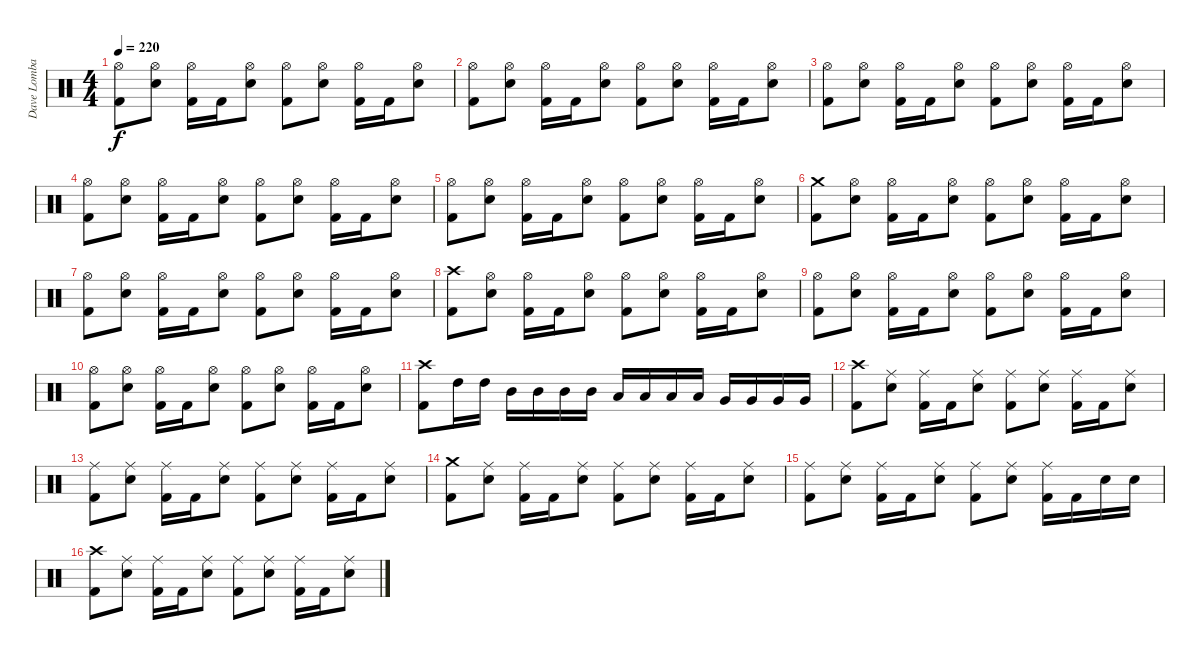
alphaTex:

\track ("Dave Lombardo" "Dave Lomba") {instrument percussion}
\staff {score}
\articulation defaults
\ts (4 4)
\tempo 220
\clef neutral
\ks c
("Hi-Hat (open)" "Kick (hit) 2").8{dy f} ("Hi-Hat (open)" "Electric Snare (hit)").8 ("Hi-Hat (open)" "Kick (hit) 2").16 "Kick (hit) 2".16 ("Hi-Hat (open)" "Electric Snare (hit)").8 ("Hi-Hat (open)" "Kick (hit) 2").8 ("Hi-Hat (open)" "Electric Snare (hit)").8 ("Hi-Hat (open)" "Kick (hit) 2").16 "Kick (hit) 2".16 ("Hi-Hat (open)" "Electric Snare (hit)").8 |
("Hi-Hat (open)" "Kick (hit) 2").8 ("Hi-Hat (open)" "Electric Snare (hit)").8 ("Hi-Hat (open)" "Kick (hit) 2").16 "Kick (hit) 2".16 ("Hi-Hat (open)" "Electric Snare (hit)").8 ("Hi-Hat (open)" "Kick (hit) 2").8 ("Hi-Hat (open)" "Electric Snare (hit)").8 ("Hi-Hat (open)" "Kick (hit) 2").16 "Kick (hit) 2".16 ("Hi-Hat (open)" "Electric Snare (hit)").8 |
("Hi-Hat (open)" "Kick (hit) 2").8 ("Hi-Hat (open)" "Electric Snare (hit)").8 ("Hi-Hat (open)" "Kick (hit) 2").16 "Kick (hit) 2".16 ("Hi-Hat (open)" "Electric Snare (hit)").8 ("Hi-Hat (open)" "Kick (hit) 2").8 ("Hi-Hat (open)" "Electric Snare (hit)").8 ("Hi-Hat (open)" "Kick (hit) 2").16 "Kick (hit) 2".16 ("Hi-Hat (open)" "Electric Snare (hit)").8 |
("Hi-Hat (open)" "Kick (hit) 2").8 ("Hi-Hat (open)" "Electric Snare (hit)").8 ("Hi-Hat (open)" "Kick (hit) 2").16 "Kick (hit) 2".16 ("Hi-Hat (open)" "Electric Snare (hit)").8 ("Hi-Hat (open)" "Kick (hit) 2").8 ("Hi-Hat (open)" "Electric Snare (hit)").8 ("Hi-Hat (open)" "Kick (hit) 2").16 "Kick (hit) 2".16 ("Hi-Hat (open)" "Electric Snare (hit)").8 |
("Hi-Hat (open)" "Kick (hit) 2").8 ("Hi-Hat (open)" "Electric Snare (hit)").8 ("Hi-Hat (open)" "Kick (hit) 2").16 "Kick (hit) 2".16 ("Hi-Hat (open)" "Electric Snare (hit)").8 ("Hi-Hat (open)" "Kick (hit) 2").8 ("Hi-Hat (open)" "Electric Snare (hit)").8 ("Hi-Hat (open)" "Kick (hit) 2").16 "Kick (hit) 2".16 ("Hi-Hat (open)" "Electric Snare (hit)").8 |
("Crash medium (hit)" "Kick (hit) 2").8 ("Hi-Hat (open)" "Electric Snare (hit)").8 ("Hi-Hat (open)" "Kick (hit) 2").16 "Kick (hit) 2".16 ("Hi-Hat (open)" "Electric Snare (hit)").8 ("Hi-Hat (open)" "Kick (hit) 2").8 ("Hi-Hat (open)" "Electric Snare (hit)").8 ("Hi-Hat (open)" "Kick (hit) 2").16 "Kick (hit) 2".16 ("Hi-Hat (open)" "Electric Snare (hit)").8 |
("Hi-Hat (open)" "Kick (hit) 2").8 ("Hi-Hat (open)" "Electric Snare (hit)").8 ("Hi-Hat (open)" "Kick (hit) 2").16 "Kick (hit) 2".16 ("Hi-Hat (open)" "Electric Snare (hit)").8 ("Hi-Hat (open)" "Kick (hit) 2").8 ("Hi-Hat (open)" "Electric Snare (hit)").8 ("Hi-Hat (open)" "Kick (hit) 2").16 "Kick (hit) 2".16 ("Hi-Hat (open)" "Electric Snare (hit)").8 |
("Crash high (hit)" "Kick (hit) 2").8 ("Hi-Hat (open)" "Electric Snare (hit)").8 ("Hi-Hat (open)" "Kick (hit) 2").16 "Kick (hit) 2".16 ("Hi-Hat (open)" "Electric Snare (hit)").8 ("Hi-Hat (open)" "Kick (hit) 2").8 ("Hi-Hat (open)" "Electric Snare (hit)").8 ("Hi-Hat (open)" "Kick (hit) 2").16 "Kick (hit) 2".16 ("Hi-Hat (open)" "Electric Snare (hit)").8 |
("Hi-Hat (open)" "Kick (hit) 2").8 ("Hi-Hat (open)" "Electric Snare (hit)").8 ("Hi-Hat (open)" "Kick (hit) 2").16 "Kick (hit) 2".16 ("Hi-Hat (open)" "Electric Snare (hit)").8 ("Hi-Hat (open)" "Kick (hit) 2").8 ("Hi-Hat (open)" "Electric Snare (hit)").8 ("Hi-Hat (open)" "Kick (hit) 2").16 "Kick (hit) 2".16 ("Hi-Hat (open)" "Electric Snare (hit)").8 |
("Hi-Hat (open)" "Kick (hit) 2").8 ("Hi-Hat (open)" "Electric Snare (hit)").8 ("Hi-Hat (open)" "Kick (hit) 2").16 "Kick (hit) 2".16 ("Hi-Hat (open)" "Electric Snare (hit)").8 ("Hi-Hat (open)" "Kick (hit) 2").8 ("Hi-Hat (open)" "Electric Snare (hit)").8 ("Hi-Hat (open)" "Kick (hit) 2").16 "Kick (hit) 2".16 ("Hi-Hat (open)" "Electric Snare (hit)").8 |
("Crash high (hit)" "Kick (hit) 2").8 "High Tom (hit)".16 "High Tom (hit)".16 "Mid Tom (hit)".16 "Mid Tom (hit)".16 "Mid Tom (hit)".16 "Mid Tom (hit)".16 "Low Tom (hit)".16 "Low Tom (hit)".16 "Low Tom (hit)".16 "Low Tom (hit)".16 "Very Low Tom (hit)".16 "Very Low Tom (hit)".16 "Very Low Tom (hit)".16 "Very Low Tom (hit)".16 |
("Crash high (hit)" "Kick (hit) 2").8 ("Ride (middle)" "Electric Snare (hit)").8 ("Ride (middle)" "Kick (hit) 2").16 "Kick (hit) 2".16 ("Ride (middle)" "Electric Snare (hit)").8 ("Ride (middle)" "Kick (hit) 2").8 ("Ride (middle)" "Electric Snare (hit)").8 ("Ride (middle)" "Kick (hit) 2").16 "Kick (hit) 2".16 ("Ride (middle)" "Electric Snare (hit)").8 |
("Ride (middle)" "Kick (hit) 2").8 ("Ride (middle)" "Electric Snare (hit)").8 ("Ride (middle)" "Kick (hit) 2").16 "Kick (hit) 2".16 ("Ride (middle)" "Electric Snare (hit)").8 ("Ride (middle)" "Kick (hit) 2").8 ("Ride (middle)" "Electric Snare (hit)").8 ("Ride (middle)" "Kick (hit) 2").16 "Kick (hit) 2".16 ("Ride (middle)" "Electric Snare (hit)").8 |
("Crash medium (hit)" "Kick (hit) 2").8 ("Ride (middle)" "Electric Snare (hit)").8 ("Ride (middle)" "Kick (hit) 2").16 "Kick (hit) 2".16 ("Ride (middle)" "Electric Snare (hit)").8 ("Ride (middle)" "Kick (hit) 2").8 ("Ride (middle)" "Electric Snare (hit)").8 ("Ride (middle)" "Kick (hit) 2").16 "Kick (hit) 2".16 ("Ride (middle)" "Electric Snare (hit)").8 |
("Ride (middle)" "Kick (hit) 2").8 ("Ride (middle)" "Electric Snare (hit)").8 ("Ride (middle)" "Kick (hit) 2").16 "Kick (hit) 2".16 ("Ride (middle)" "Electric Snare (hit)").8 ("Ride (middle)" "Kick (hit) 2").8 ("Ride (middle)" "Electric Snare (hit)").8 ("Ride (middle)" "Kick (hit) 2").16 "Kick (hit) 2".16 "Electric Snare (hit)".16 "Electric Snare (hit)".16 |
("Crash high (hit)" "Kick (hit) 2").8 ("Ride (middle)" "Electric Snare (hit)").8 ("Ride (middle)" "Kick (hit) 2").16 "Kick (hit) 2".16 ("Ride (middle)" "Electric Snare (hit)").8 ("Ride (middle)" "Kick (hit) 2").8 ("Ride (middle)" "Electric Snare (hit)").8 ("Ride (middle)" "Kick (hit) 2").16 "Kick (hit) 2".16 ("Ride (middle)" "Electric Snare (hit)").8
